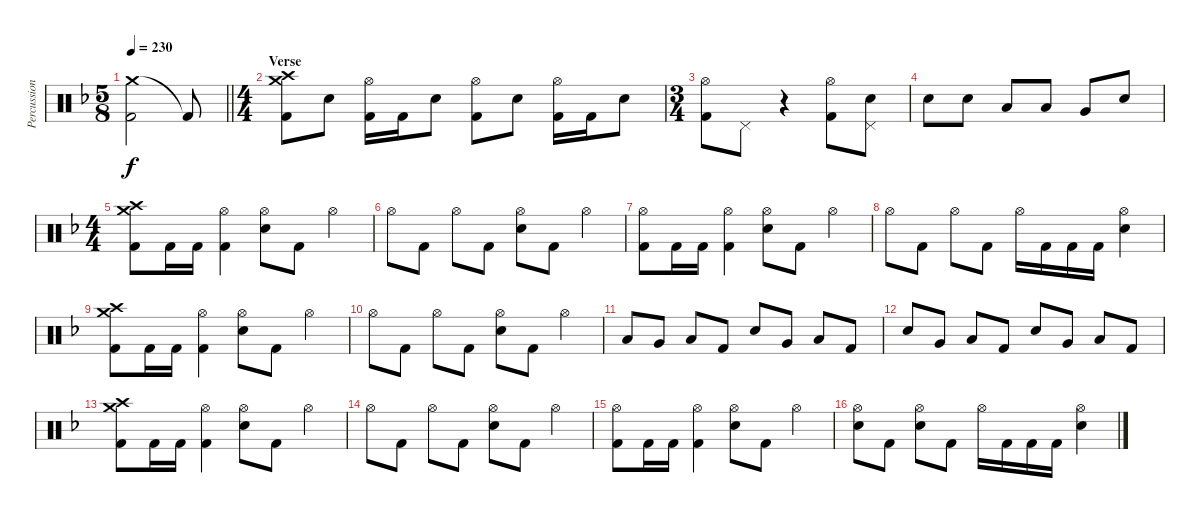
\track ("Percussion" "Percussion") {instrument percussion}
\staff {score}
\articulation defaults
\ts (5 8)
\tempo 230
\clef neutral
\barLineRight lightlight
\ks f
("Crash medium (hit)" "Kick (hit) 2").2{dy f} "Kick (hit) 2"{t}.8 |
\ts (4 4)
\section ("" "Verse")
("Crash medium (hit)" "Crash high (hit)" "Kick (hit) 2").8 "Electric Snare (hit)".8 ("Hi-Hat (open)" "Kick (hit) 2").16 "Kick (hit) 2".16 "Electric Snare (hit)".8 ("Hi-Hat (open)" "Kick (hit) 2").8 "Electric Snare (hit)".8 ("Hi-Hat (open)" "Kick (hit) 2").16 "Kick (hit) 2".16 "Electric Snare (hit)".8 |
\ts (3 4)
("Hi-Hat (open)" "Kick (hit) 2").8 "Pedal Hi-Hat (hit)".8 r.4 ("Hi-Hat (open)" "Kick (hit) 2").8 ("Pedal Hi-Hat (hit)" "Electric Snare (hit)").8 |
"Electric Snare (hit)".8 "Electric Snare (hit)".8 "Low Tom (hit)".8 "Low Tom (hit)".8 "Very Low Tom (hit)".8 "Electric Snare (hit)".8 |
\ts (4 4)
("Crash medium (hit)" "Crash high (hit)" "Kick (hit) 2").8 "Kick (hit) 2".16 "Kick (hit) 2".16 ("Hi-Hat (open)" "Kick (hit) 2").4 ("Hi-Hat (open)" "Electric Snare (hit)").8 "Kick (hit) 2".8 "Hi-Hat (open)".4 |
"Hi-Hat (open)".8 "Kick (hit) 2".8 "Hi-Hat (open)".8 "Kick (hit) 2".8 ("Hi-Hat (open)" "Electric Snare (hit)").8 "Kick (hit) 2".8 "Hi-Hat (open)".4 |
("Hi-Hat (open)" "Kick (hit) 2").8 "Kick (hit) 2".16 "Kick (hit) 2".16 ("Hi-Hat (open)" "Kick (hit) 2").4 ("Hi-Hat (open)" "Electric Snare (hit)").8 "Kick (hit) 2".8 "Hi-Hat (open)".4 |
"Hi-Hat (open)".8 "Kick (hit) 2".8 "Hi-Hat (open)".8 "Kick (hit) 2".8 "Hi-Hat (open)".16 "Kick (hit) 2".16 "Kick (hit) 2".16 "Kick (hit) 2".16 ("Hi-Hat (open)" "Electric Snare (hit)").4 |
("Crash medium (hit)" "Crash high (hit)" "Kick (hit) 2").8 "Kick (hit) 2".16 "Kick (hit) 2".16 ("Hi-Hat (open)" "Kick (hit) 2").4 ("Hi-Hat (open)" "Electric Snare (hit)").8 "Kick (hit) 2".8 "Hi-Hat (open)".4 |
"Hi-Hat (open)".8 "Kick (hit) 2".8 "Hi-Hat (open)".8 "Kick (hit) 2".8 ("Hi-Hat (open)" "Electric Snare (hit)").8 "Kick (hit) 2".8 "Hi-Hat (open)".4 |
"Low Tom (hit)".8 "Very Low Tom (hit)".8 "Low Floor Tom (hit)".8 "Kick (hit) 2".8 "Electric Snare (hit)".8 "Very Low Tom (hit)".8 "Low Floor Tom (hit)".8 "Kick (hit) 2".8 |
"Electric Snare (hit)".8 "Very Low Tom (hit)".8 "Low Floor Tom (hit)".8 "Kick (hit) 2".8 "Electric Snare (hit)".8 "Very Low Tom (hit)".8 "Low Floor Tom (hit)".8 "Kick (hit) 2".8 |
("Crash medium (hit)" "Crash high (hit)" "Kick (hit) 2").8 "Kick (hit) 2".16 "Kick (hit) 2".16 ("Hi-Hat (open)" "Kick (hit) 2").4 ("Hi-Hat (open)" "Electric Snare (hit)").8 "Kick (hit) 2".8 "Hi-Hat (open)".4 |
"Hi-Hat (open)".8 "Kick (hit) 2".8 "Hi-Hat (open)".8 "Kick (hit) 2".8 ("Hi-Hat (open)" "Electric Snare (hit)").8 "Kick (hit) 2".8 "Hi-Hat (open)".4 |
("Hi-Hat (open)" "Kick (hit) 2").8 "Kick (hit) 2".16 "Kick (hit) 2".16 ("Hi-Hat (open)" "Kick (hit) 2").4 ("Hi-Hat (open)" "Electric Snare (hit)").8 "Kick (hit) 2".8 "Hi-Hat (open)".4 |
("Hi-Hat (open)" "Electric Snare (hit)").8 "Kick (hit) 2".8 ("Hi-Hat (open)" "Electric Snare (hit)").8 "Kick (hit) 2".8 "Hi-Hat (open)".16 "Kick (hit) 2".16 "Kick (hit) 2".16 "Kick (hit) 2".16 ("Hi-Hat (open)" "Electric Snare (hit)").4
